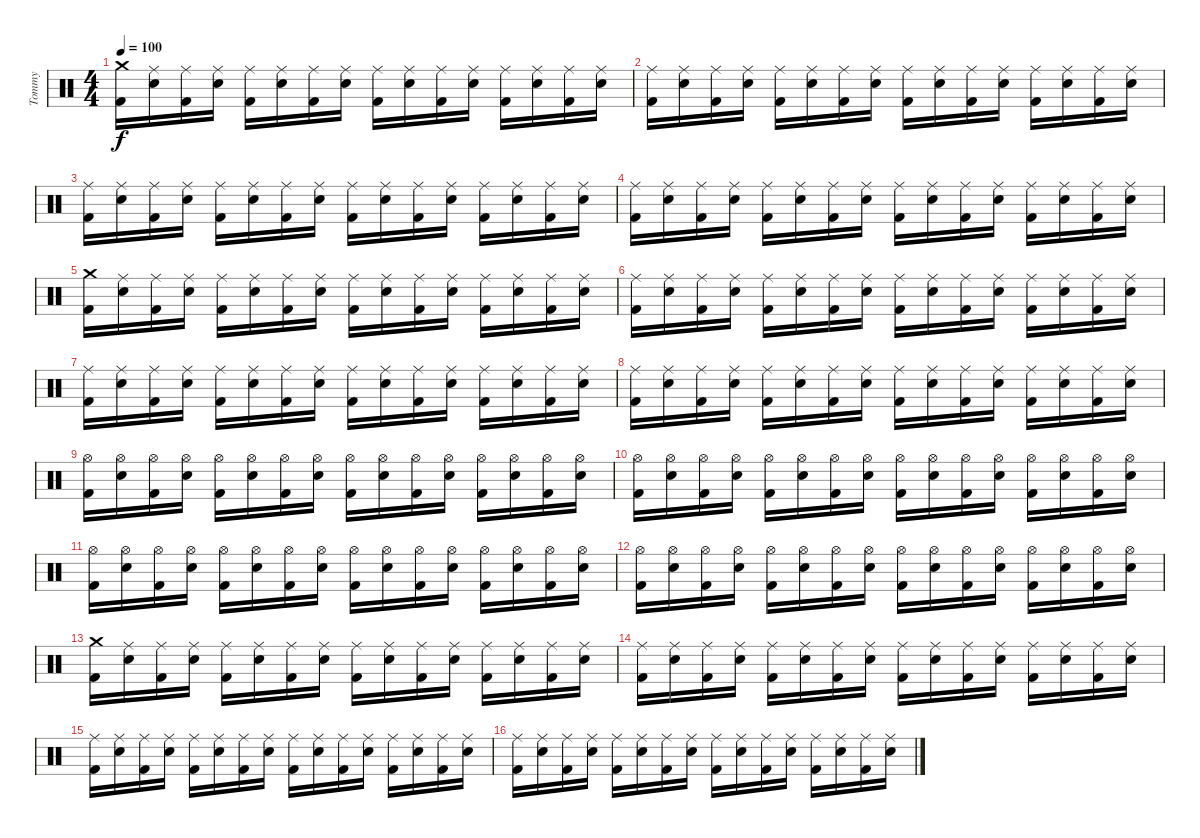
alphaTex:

\track ("Tommy" "Tommy") {instrument percussion}
\staff {score}
\articulation defaults
\ts (4 4)
\tempo 100
\clef neutral
\ks c
("Crash medium (hit)" "Kick (hit) 2").16{dy f} ("Ride (middle)" "Snare (hit) 2").16 ("Ride (middle)" "Kick (hit) 2").16 ("Ride (middle)" "Snare (hit) 2").16 ("Ride (middle)" "Kick (hit) 2").16 ("Ride (middle)" "Snare (hit) 2").16 ("Ride (middle)" "Kick (hit) 2").16 ("Ride (middle)" "Snare (hit) 2").16 ("Ride (middle)" "Kick (hit) 2").16 ("Ride (middle)" "Snare (hit) 2").16 ("Ride (middle)" "Kick (hit) 2").16 ("Ride (middle)" "Snare (hit) 2").16 ("Ride (middle)" "Kick (hit) 2").16 ("Ride (middle)" "Snare (hit) 2").16 ("Ride (middle)" "Kick (hit) 2").16 ("Ride (middle)" "Snare (hit) 2").16 |
("Ride (middle)" "Kick (hit) 2").16 ("Ride (middle)" "Snare (hit) 2").16 ("Ride (middle)" "Kick (hit) 2").16 ("Ride (middle)" "Snare (hit) 2").16 ("Ride (middle)" "Kick (hit) 2").16 ("Ride (middle)" "Snare (hit) 2").16 ("Ride (middle)" "Kick (hit) 2").16 ("Ride (middle)" "Snare (hit) 2").16 ("Ride (middle)" "Kick (hit) 2").16 ("Ride (middle)" "Snare (hit) 2").16 ("Ride (middle)" "Kick (hit) 2").16 ("Ride (middle)" "Snare (hit) 2").16 ("Ride (middle)" "Kick (hit) 2").16 ("Ride (middle)" "Snare (hit) 2").16 ("Ride (middle)" "Kick (hit) 2").16 ("Ride (middle)" "Snare (hit) 2").16 |
("Ride (middle)" "Kick (hit) 2").16 ("Ride (middle)" "Snare (hit) 2").16 ("Ride (middle)" "Kick (hit) 2").16 ("Ride (middle)" "Snare (hit) 2").16 ("Ride (middle)" "Kick (hit) 2").16 ("Ride (middle)" "Snare (hit) 2").16 ("Ride (middle)" "Kick (hit) 2").16 ("Ride (middle)" "Snare (hit) 2").16 ("Ride (middle)" "Kick (hit) 2").16 ("Ride (middle)" "Snare (hit) 2").16 ("Ride (middle)" "Kick (hit) 2").16 ("Ride (middle)" "Snare (hit) 2").16 ("Ride (middle)" "Kick (hit) 2").16 ("Ride (middle)" "Snare (hit) 2").16 ("Ride (middle)" "Kick (hit) 2").16 ("Ride (middle)" "Snare (hit) 2").16 |
("Ride (middle)" "Kick (hit) 2").16 ("Ride (middle)" "Snare (hit) 2").16 ("Ride (middle)" "Kick (hit) 2").16 ("Ride (middle)" "Snare (hit) 2").16 ("Ride (middle)" "Kick (hit) 2").16 ("Ride (middle)" "Snare (hit) 2").16 ("Ride (middle)" "Kick (hit) 2").16 ("Ride (middle)" "Snare (hit) 2").16 ("Ride (middle)" "Kick (hit) 2").16 ("Ride (middle)" "Snare (hit) 2").16 ("Ride (middle)" "Kick (hit) 2").16 ("Ride (middle)" "Snare (hit) 2").16 ("Ride (middle)" "Kick (hit) 2").16 ("Ride (middle)" "Snare (hit) 2").16 ("Ride (middle)" "Kick (hit) 2").16 ("Ride (middle)" "Snare (hit) 2").16 |
("Crash medium (hit)" "Kick (hit) 2").16 ("Ride (middle)" "Snare (hit) 2").16 ("Ride (middle)" "Kick (hit) 2").16 ("Ride (middle)" "Snare (hit) 2").16 ("Ride (middle)" "Kick (hit) 2").16 ("Ride (middle)" "Snare (hit) 2").16 ("Ride (middle)" "Kick (hit) 2").16 ("Ride (middle)" "Snare (hit) 2").16 ("Ride (middle)" "Kick (hit) 2").16 ("Ride (middle)" "Snare (hit) 2").16 ("Ride (middle)" "Kick (hit) 2").16 ("Ride (middle)" "Snare (hit) 2").16 ("Ride (middle)" "Kick (hit) 2").16 ("Ride (middle)" "Snare (hit) 2").16 ("Ride (middle)" "Kick (hit) 2").16 ("Ride (middle)" "Snare (hit) 2").16 |
("Ride (middle)" "Kick (hit) 2").16 ("Ride (middle)" "Snare (hit) 2").16 ("Ride (middle)" "Kick (hit) 2").16 ("Ride (middle)" "Snare (hit) 2").16 ("Ride (middle)" "Kick (hit) 2").16 ("Ride (middle)" "Snare (hit) 2").16 ("Ride (middle)" "Kick (hit) 2").16 ("Ride (middle)" "Snare (hit) 2").16 ("Ride (middle)" "Kick (hit) 2").16 ("Ride (middle)" "Snare (hit) 2").16 ("Ride (middle)" "Kick (hit) 2").16 ("Ride (middle)" "Snare (hit) 2").16 ("Ride (middle)" "Kick (hit) 2").16 ("Ride (middle)" "Snare (hit) 2").16 ("Ride (middle)" "Kick (hit) 2").16 ("Ride (middle)" "Snare (hit) 2").16 |
("Ride (middle)" "Kick (hit) 2").16 ("Ride (middle)" "Snare (hit) 2").16 ("Ride (middle)" "Kick (hit) 2").16 ("Ride (middle)" "Snare (hit) 2").16 ("Ride (middle)" "Kick (hit) 2").16 ("Ride (middle)" "Snare (hit) 2").16 ("Ride (middle)" "Kick (hit) 2").16 ("Ride (middle)" "Snare (hit) 2").16 ("Ride (middle)" "Kick (hit) 2").16 ("Ride (middle)" "Snare (hit) 2").16 ("Ride (middle)" "Kick (hit) 2").16 ("Ride (middle)" "Snare (hit) 2").16 ("Ride (middle)" "Kick (hit) 2").16 ("Ride (middle)" "Snare (hit) 2").16 ("Ride (middle)" "Kick (hit) 2").16 ("Ride (middle)" "Snare (hit) 2").16 |
("Ride (middle)" "Kick (hit) 2").16 ("Ride (middle)" "Snare (hit) 2").16 ("Ride (middle)" "Kick (hit) 2").16 ("Ride (middle)" "Snare (hit) 2").16 ("Ride (middle)" "Kick (hit) 2").16 ("Ride (middle)" "Snare (hit) 2").16 ("Ride (middle)" "Kick (hit) 2").16 ("Ride (middle)" "Snare (hit) 2").16 ("Ride (middle)" "Kick (hit) 2").16 ("Ride (middle)" "Snare (hit) 2").16 ("Ride (middle)" "Kick (hit) 2").16 ("Ride (middle)" "Snare (hit) 2").16 ("Ride (middle)" "Kick (hit) 2").16 ("Ride (middle)" "Snare (hit) 2").16 ("Ride (middle)" "Kick (hit) 2").16 ("Ride (middle)" "Snare (hit) 2").16 |
("Hi-Hat (open)" "Kick (hit) 2").16 ("Hi-Hat (open)" "Snare (hit) 2").16 ("Hi-Hat (open)" "Kick (hit) 2").16 ("Hi-Hat (open)" "Snare (hit) 2").16 ("Hi-Hat (open)" "Kick (hit) 2").16 ("Hi-Hat (open)" "Snare (hit) 2").16 ("Hi-Hat (open)" "Kick (hit) 2").16 ("Hi-Hat (open)" "Snare (hit) 2").16 ("Hi-Hat (open)" "Kick (hit) 2").16 ("Hi-Hat (open)" "Snare (hit) 2").16 ("Hi-Hat (open)" "Kick (hit) 2").16 ("Hi-Hat (open)" "Snare (hit) 2").16 ("Hi-Hat (open)" "Kick (hit) 2").16 ("Hi-Hat (open)" "Snare (hit) 2").16 ("Hi-Hat (open)" "Kick (hit) 2").16 ("Hi-Hat (open)" "Snare (hit) 2").16 |
("Hi-Hat (open)" "Kick (hit) 2").16 ("Hi-Hat (open)" "Snare (hit) 2").16 ("Hi-Hat (open)" "Kick (hit) 2").16 ("Hi-Hat (open)" "Snare (hit) 2").16 ("Hi-Hat (open)" "Kick (hit) 2").16 ("Hi-Hat (open)" "Snare (hit) 2").16 ("Hi-Hat (open)" "Kick (hit) 2").16 ("Hi-Hat (open)" "Snare (hit) 2").16 ("Hi-Hat (open)" "Kick (hit) 2").16 ("Hi-Hat (open)" "Snare (hit) 2").16 ("Hi-Hat (open)" "Kick (hit) 2").16 ("Hi-Hat (open)" "Snare (hit) 2").16 ("Hi-Hat (open)" "Kick (hit) 2").16 ("Hi-Hat (open)" "Snare (hit) 2").16 ("Hi-Hat (open)" "Kick (hit) 2").16 ("Hi-Hat (open)" "Snare (hit) 2").16 |
("Hi-Hat (open)" "Kick (hit) 2").16 ("Hi-Hat (open)" "Snare (hit) 2").16 ("Hi-Hat (open)" "Kick (hit) 2").16 ("Hi-Hat (open)" "Snare (hit) 2").16 ("Hi-Hat (open)" "Kick (hit) 2").16 ("Hi-Hat (open)" "Snare (hit) 2").16 ("Hi-Hat (open)" "Kick (hit) 2").16 ("Hi-Hat (open)" "Snare (hit) 2").16 ("Hi-Hat (open)" "Kick (hit) 2").16 ("Hi-Hat (open)" "Snare (hit) 2").16 ("Hi-Hat (open)" "Kick (hit) 2").16 ("Hi-Hat (open)" "Snare (hit) 2").16 ("Hi-Hat (open)" "Kick (hit) 2").16 ("Hi-Hat (open)" "Snare (hit) 2").16 ("Hi-Hat (open)" "Kick (hit) 2").16 ("Hi-Hat (open)" "Snare (hit) 2").16 |
("Hi-Hat (open)" "Kick (hit) 2").16 ("Hi-Hat (open)" "Snare (hit) 2").16 ("Hi-Hat (open)" "Kick (hit) 2").16 ("Hi-Hat (open)" "Snare (hit) 2").16 ("Hi-Hat (open)" "Kick (hit) 2").16 ("Hi-Hat (open)" "Snare (hit) 2").16 ("Hi-Hat (open)" "Kick (hit) 2").16 ("Hi-Hat (open)" "Snare (hit) 2").16 ("Hi-Hat (open)" "Kick (hit) 2").16 ("Hi-Hat (open)" "Snare (hit) 2").16 ("Hi-Hat (open)" "Kick (hit) 2").16 ("Hi-Hat (open)" "Snare (hit) 2").16 ("Hi-Hat (open)" "Kick (hit) 2").16 ("Hi-Hat (open)" "Snare (hit) 2").16 ("Hi-Hat (open)" "Kick (hit) 2").16 ("Hi-Hat (open)" "Snare (hit) 2").16 |
("Crash medium (hit)" "Kick (hit) 2").16 ("Ride (middle)" "Snare (hit) 2").16 ("Ride (middle)" "Kick (hit) 2").16 ("Ride (middle)" "Snare (hit) 2").16 ("Ride (middle)" "Kick (hit) 2").16 ("Ride (middle)" "Snare (hit) 2").16 ("Ride (middle)" "Kick (hit) 2").16 ("Ride (middle)" "Snare (hit) 2").16 ("Ride (middle)" "Kick (hit) 2").16 ("Ride (middle)" "Snare (hit) 2").16 ("Ride (middle)" "Kick (hit) 2").16 ("Ride (middle)" "Snare (hit) 2").16 ("Ride (middle)" "Kick (hit) 2").16 ("Ride (middle)" "Snare (hit) 2").16 ("Ride (middle)" "Kick (hit) 2").16 ("Ride (middle)" "Snare (hit) 2").16 |
("Ride (middle)" "Kick (hit) 2").16 ("Ride (middle)" "Snare (hit) 2").16 ("Ride (middle)" "Kick (hit) 2").16 ("Ride (middle)" "Snare (hit) 2").16 ("Ride (middle)" "Kick (hit) 2").16 ("Ride (middle)" "Snare (hit) 2").16 ("Ride (middle)" "Kick (hit) 2").16 ("Ride (middle)" "Snare (hit) 2").16 ("Ride (middle)" "Kick (hit) 2").16 ("Ride (middle)" "Snare (hit) 2").16 ("Ride (middle)" "Kick (hit) 2").16 ("Ride (middle)" "Snare (hit) 2").16 ("Ride (middle)" "Kick (hit) 2").16 ("Ride (middle)" "Snare (hit) 2").16 ("Ride (middle)" "Kick (hit) 2").16 ("Ride (middle)" "Snare (hit) 2").16 |
("Ride (middle)" "Kick (hit) 2").16 ("Ride (middle)" "Snare (hit) 2").16 ("Ride (middle)" "Kick (hit) 2").16 ("Ride (middle)" "Snare (hit) 2").16 ("Ride (middle)" "Kick (hit) 2").16 ("Ride (middle)" "Snare (hit) 2").16 ("Ride (middle)" "Kick (hit) 2").16 ("Ride (middle)" "Snare (hit) 2").16 ("Ride (middle)" "Kick (hit) 2").16 ("Ride (middle)" "Snare (hit) 2").16 ("Ride (middle)" "Kick (hit) 2").16 ("Ride (middle)" "Snare (hit) 2").16 ("Ride (middle)" "Kick (hit) 2").16 ("Ride (middle)" "Snare (hit) 2").16 ("Ride (middle)" "Kick (hit) 2").16 ("Ride (middle)" "Snare (hit) 2").16 |
("Ride (middle)" "Kick (hit) 2").16 ("Ride (middle)" "Snare (hit) 2").16 ("Ride (middle)" "Kick (hit) 2").16 ("Ride (middle)" "Snare (hit) 2").16 ("Ride (middle)" "Kick (hit) 2").16 ("Ride (middle)" "Snare (hit) 2").16 ("Ride (middle)" "Kick (hit) 2").16 ("Ride (middle)" "Snare (hit) 2").16 ("Ride (middle)" "Kick (hit) 2").16 ("Ride (middle)" "Snare (hit) 2").16 ("Ride (middle)" "Kick (hit) 2").16 ("Ride (middle)" "Snare (hit) 2").16 ("Ride (middle)" "Kick (hit) 2").16 ("Ride (middle)" "Snare (hit) 2").16 ("Ride (middle)" "Kick (hit) 2").16 ("Ride (middle)" "Snare (hit) 2").16
